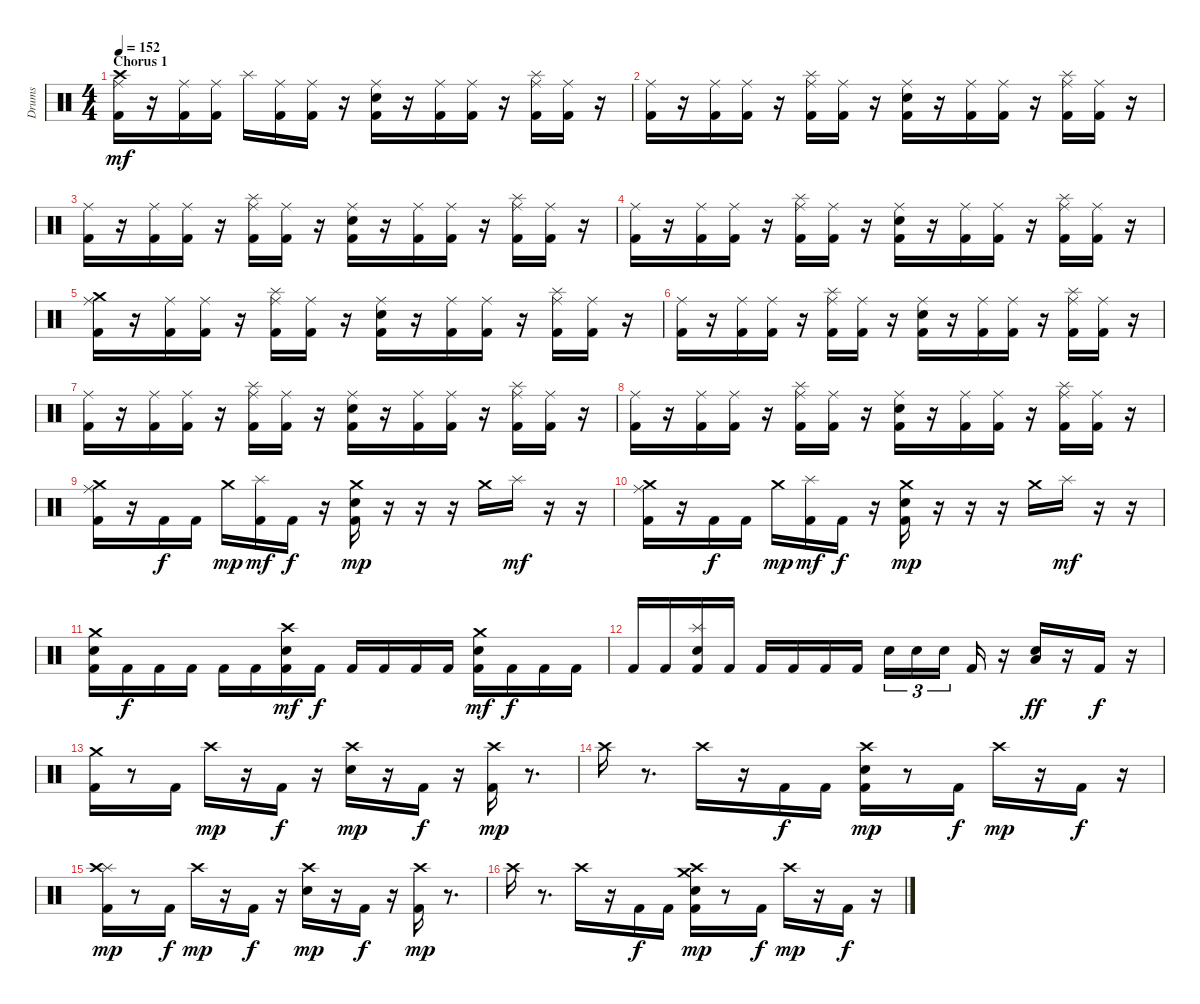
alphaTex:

\track ("Drums" "Drums") {instrument percussion}
\staff {score}
\articulation defaults
\ts (4 4)
\section ("" "Chorus 1")
\tempo 152
\clef neutral
\ks c
("Crash high (hit)" "Ride (middle)" "Kick (hit) 2").16{dy mf} r.16 ("Ride (middle)" "Kick (hit) 2").16 ("Ride (middle)" "Kick (hit) 2").16 "Splash (hit)".16 ("Ride (middle)" "Kick (hit) 2").16 ("Ride (middle)" "Kick (hit) 2").16 r.16 ("Ride (middle)" "Snare (hit) 2" "Kick (hit) 2").16 r.16 ("Ride (middle)" "Kick (hit) 2").16 ("Ride (middle)" "Kick (hit) 2").16 r.16 ("Splash (hit)" "Ride (middle)" "Kick (hit) 2").16 ("Ride (middle)" "Kick (hit) 2").16 r.16 |
("Ride (middle)" "Kick (hit) 2").16 r.16 ("Ride (middle)" "Kick (hit) 2").16 ("Ride (middle)" "Kick (hit) 2").16 r.16 ("Splash (hit)" "Ride (middle)" "Kick (hit) 2").16 ("Ride (middle)" "Kick (hit) 2").16 r.16 ("Ride (middle)" "Snare (hit) 2" "Kick (hit) 2").16 r.16 ("Ride (middle)" "Kick (hit) 2").16 ("Ride (middle)" "Kick (hit) 2").16 r.16 ("Splash (hit)" "Ride (middle)" "Kick (hit) 2").16 ("Ride (middle)" "Kick (hit) 2").16 r.16 |
("Ride (middle)" "Kick (hit) 2").16 r.16 ("Ride (middle)" "Kick (hit) 2").16 ("Ride (middle)" "Kick (hit) 2").16 r.16 ("Splash (hit)" "Ride (middle)" "Kick (hit) 2").16 ("Ride (middle)" "Kick (hit) 2").16 r.16 ("Ride (middle)" "Snare (hit) 2" "Kick (hit) 2").16 r.16 ("Ride (middle)" "Kick (hit) 2").16 ("Ride (middle)" "Kick (hit) 2").16 r.16 ("Splash (hit)" "Ride (middle)" "Kick (hit) 2").16 ("Ride (middle)" "Kick (hit) 2").16 r.16 |
("Ride (middle)" "Kick (hit) 2").16 r.16 ("Ride (middle)" "Kick (hit) 2").16 ("Ride (middle)" "Kick (hit) 2").16 r.16 ("Splash (hit)" "Ride (middle)" "Kick (hit) 2").16 ("Ride (middle)" "Kick (hit) 2").16 r.16 ("Ride (middle)" "Snare (hit) 2" "Kick (hit) 2").16 r.16 ("Ride (middle)" "Kick (hit) 2").16 ("Ride (middle)" "Kick (hit) 2").16 r.16 ("Splash (hit)" "Ride (middle)" "Kick (hit) 2").16 ("Ride (middle)" "Kick (hit) 2").16 r.16 |
("Crash medium (hit)" "Ride (middle)" "Kick (hit) 2").16 r.16 ("Ride (middle)" "Kick (hit) 2").16 ("Ride (middle)" "Kick (hit) 2").16 r.16 ("Splash (hit)" "Ride (middle)" "Kick (hit) 2").16 ("Ride (middle)" "Kick (hit) 2").16 r.16 ("Ride (middle)" "Snare (hit) 2" "Kick (hit) 2").16 r.16 ("Ride (middle)" "Kick (hit) 2").16 ("Ride (middle)" "Kick (hit) 2").16 r.16 ("Splash (hit)" "Ride (middle)" "Kick (hit) 2").16 ("Ride (middle)" "Kick (hit) 2").16 r.16 |
("Ride (middle)" "Kick (hit) 2").16 r.16 ("Ride (middle)" "Kick (hit) 2").16 ("Ride (middle)" "Kick (hit) 2").16 r.16 ("Splash (hit)" "Ride (middle)" "Kick (hit) 2").16 ("Ride (middle)" "Kick (hit) 2").16 r.16 ("Ride (middle)" "Snare (hit) 2" "Kick (hit) 2").16 r.16 ("Ride (middle)" "Kick (hit) 2").16 ("Ride (middle)" "Kick (hit) 2").16 r.16 ("Splash (hit)" "Ride (middle)" "Kick (hit) 2").16 ("Ride (middle)" "Kick (hit) 2").16 r.16 |
("Ride (middle)" "Kick (hit) 2").16 r.16 ("Ride (middle)" "Kick (hit) 2").16 ("Ride (middle)" "Kick (hit) 2").16 r.16 ("Splash (hit)" "Ride (middle)" "Kick (hit) 2").16 ("Ride (middle)" "Kick (hit) 2").16 r.16 ("Ride (middle)" "Snare (hit) 2" "Kick (hit) 2").16 r.16 ("Ride (middle)" "Kick (hit) 2").16 ("Ride (middle)" "Kick (hit) 2").16 r.16 ("Splash (hit)" "Ride (middle)" "Kick (hit) 2").16 ("Ride (middle)" "Kick (hit) 2").16 r.16 |
("Ride (middle)" "Kick (hit) 2").16 r.16 ("Ride (middle)" "Kick (hit) 2").16 ("Ride (middle)" "Kick (hit) 2").16 r.16 ("Splash (hit)" "Ride (middle)" "Kick (hit) 2").16 ("Ride (middle)" "Kick (hit) 2").16 r.16 ("Ride (middle)" "Snare (hit) 2" "Kick (hit) 2").16 r.16 ("Ride (middle)" "Kick (hit) 2").16 ("Ride (middle)" "Kick (hit) 2").16 r.16 ("Splash (hit)" "Ride (middle)" "Kick (hit) 2").16 ("Ride (middle)" "Kick (hit) 2").16 r.16 |
("Crash medium (hit)" "Ride (middle)" "Kick (hit) 2").16 r.16 "Kick (hit) 2".16{dy f} "Kick (hit) 2".16 "Crash medium (hit)".16{dy mp} ("Splash (hit)" "Kick (hit) 2").16{dy mf} "Kick (hit) 2".16{dy f} r.16 ("Crash medium (hit)" "Snare (hit) 2" "Kick (hit) 2").16{dy mp} r.16 r.16 r.16 "Crash medium (hit)".16 "Splash (hit)".16{dy mf} r.16 r.16 |
("Crash medium (hit)" "Ride (middle)" "Kick (hit) 2").16 r.16 "Kick (hit) 2".16{dy f} "Kick (hit) 2".16 "Crash medium (hit)".16{dy mp} ("Splash (hit)" "Kick (hit) 2").16{dy mf} "Kick (hit) 2".16{dy f} r.16 ("Crash medium (hit)" "Snare (hit) 2" "Kick (hit) 2").16{dy mp} r.16 r.16 r.16 "Crash medium (hit)".16 "Splash (hit)".16{dy mf} r.16 r.16 |
("Crash medium (hit)" "Snare (hit) 2" "Kick (hit) 2").16 "Kick (hit) 2".16{dy f} "Kick (hit) 2".16 "Kick (hit) 2".16 "Kick (hit) 2".16 "Kick (hit) 2".16 ("Crash high (hit)" "Snare (hit) 2" "Kick (hit) 2").16{dy mf} "Kick (hit) 2".16{dy f} "Kick (hit) 2".16 "Kick (hit) 2".16 "Kick (hit) 2".16 "Kick (hit) 2".16 ("Crash medium (hit)" "Snare (hit) 2" "Kick (hit) 2").16{dy mf} "Kick (hit) 2".16{dy f} "Kick (hit) 2".16 "Kick (hit) 2".16 |
"Kick (hit) 2".16 "Kick (hit) 2".16 ("Splash (hit)" "Snare (hit) 2" "Kick (hit) 2").16 "Kick (hit) 2".16 "Kick (hit) 2".16 "Kick (hit) 2".16 "Kick (hit) 2".16 "Kick (hit) 2".16 "Snare (hit) 2".16{tu (3 2)} "Snare (hit) 2".16{tu (3 2)} "Snare (hit) 2".16{tu (3 2)} "Kick (hit) 2".16 r.16 ("Low Floor Tom (hit)" "Snare (hit) 2").16{dy ff} r.16 "Kick (hit) 2".16{dy f} r.16 |
("Crash medium (hit)" "Kick (hit) 2").16 r.8 "Kick (hit) 2".16 "Crash high (hit)".16{dy mp} r.16 "Kick (hit) 2".16{dy f} r.16 ("Crash high (hit)" "Snare (hit) 2").16{dy mp} r.16 "Kick (hit) 2".16{dy f} r.16 ("Crash high (hit)" "Kick (hit) 2").16{dy mp} r.8{d} |
"Crash high (hit)".16 r.8{d} "Crash high (hit)".16 r.16 "Kick (hit) 2".16{dy f} "Kick (hit) 2".16 ("Crash high (hit)" "Snare (hit) 2" "Kick (hit) 2").16{dy mp} r.8 "Kick (hit) 2".16{dy f} "Crash high (hit)".16{dy mp} r.16 "Kick (hit) 2".16{dy f} r.16 |
("Splash (hit)" "Crash high (hit)" "Kick (hit) 2").16{dy mp} r.8 "Kick (hit) 2".16{dy f} "Crash high (hit)".16{dy mp} r.16 "Kick (hit) 2".16{dy f} r.16 ("Crash high (hit)" "Snare (hit) 2").16{dy mp} r.16 "Kick (hit) 2".16{dy f} r.16 ("Crash high (hit)" "Kick (hit) 2").16{dy mp} r.8{d} |
"Crash high (hit)".16 r.8{d} "Crash high (hit)".16 r.16 "Kick (hit) 2".16{dy f} "Kick (hit) 2".16 ("Crash medium (hit)" "Crash high (hit)" "Snare (hit) 2" "Kick (hit) 2").16{dy mp} r.8 "Kick (hit) 2".16{dy f} "Crash high (hit)".16{dy mp} r.16 "Kick (hit) 2".16{dy f} r.16
